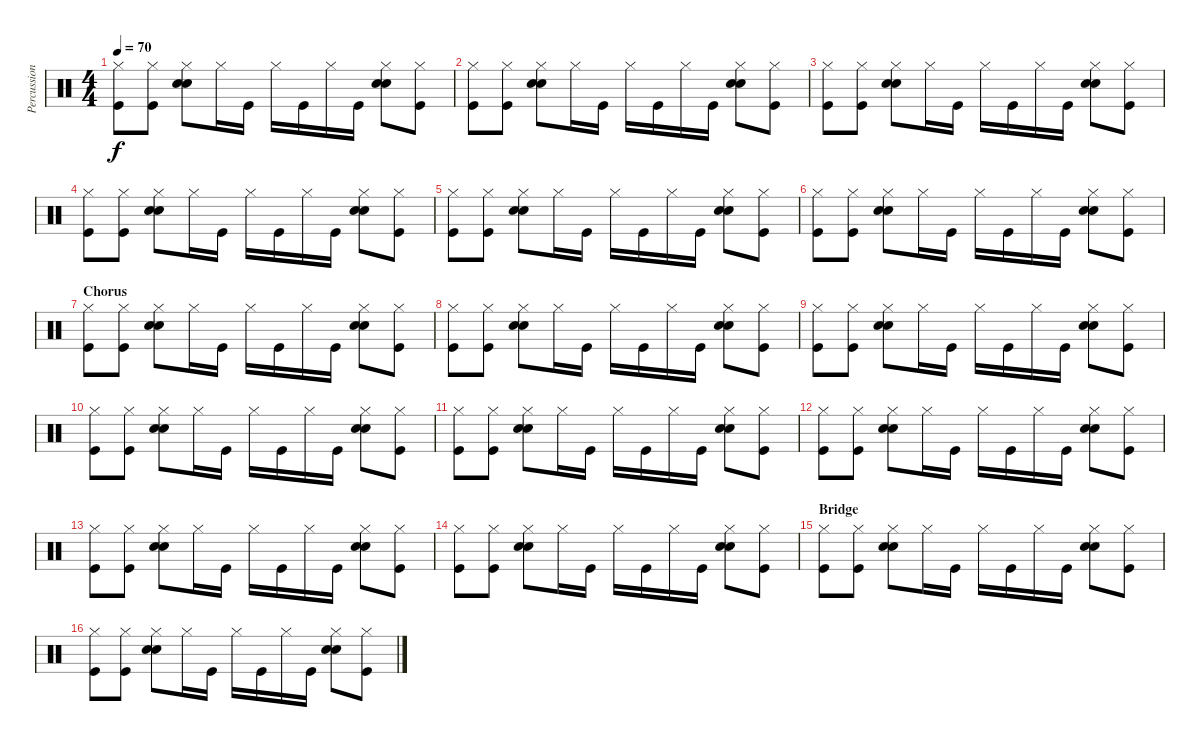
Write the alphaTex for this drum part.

\track ("Percussion" "Percussion") {instrument percussion}
\staff {score}
\articulation defaults
\ts (4 4)
\tempo 70
\clef neutral
\ks c
("Kick (hit)" "Hi-Hat (closed)").8{dy f} ("Kick (hit)" "Hi-Hat (closed)").8 ("Snare (hit) 2" "Electric Snare (hit)" "Hi-Hat (closed)").8 "Hi-Hat (closed)".16 "Kick (hit)".16 "Hi-Hat (closed)".16 "Kick (hit)".16 "Hi-Hat (closed)".16 "Kick (hit)".16 ("Snare (hit) 2" "Electric Snare (hit)" "Hi-Hat (closed)").8 ("Kick (hit)" "Hi-Hat (closed)").8 |
("Kick (hit)" "Hi-Hat (closed)").8 ("Kick (hit)" "Hi-Hat (closed)").8 ("Snare (hit) 2" "Electric Snare (hit)" "Hi-Hat (closed)").8 "Hi-Hat (closed)".16 "Kick (hit)".16 "Hi-Hat (closed)".16 "Kick (hit)".16 "Hi-Hat (closed)".16 "Kick (hit)".16 ("Snare (hit) 2" "Electric Snare (hit)" "Hi-Hat (closed)").8 ("Kick (hit)" "Hi-Hat (closed)").8 |
("Kick (hit)" "Hi-Hat (closed)").8 ("Kick (hit)" "Hi-Hat (closed)").8 ("Snare (hit) 2" "Electric Snare (hit)" "Hi-Hat (closed)").8 "Hi-Hat (closed)".16 "Kick (hit)".16 "Hi-Hat (closed)".16 "Kick (hit)".16 "Hi-Hat (closed)".16 "Kick (hit)".16 ("Snare (hit) 2" "Electric Snare (hit)" "Hi-Hat (closed)").8 ("Kick (hit)" "Hi-Hat (closed)").8 |
("Kick (hit)" "Hi-Hat (closed)").8 ("Kick (hit)" "Hi-Hat (closed)").8 ("Snare (hit) 2" "Electric Snare (hit)" "Hi-Hat (closed)").8 "Hi-Hat (closed)".16 "Kick (hit)".16 "Hi-Hat (closed)".16 "Kick (hit)".16 "Hi-Hat (closed)".16 "Kick (hit)".16 ("Snare (hit) 2" "Electric Snare (hit)" "Hi-Hat (closed)").8 ("Kick (hit)" "Hi-Hat (closed)").8 |
("Kick (hit)" "Hi-Hat (closed)").8 ("Kick (hit)" "Hi-Hat (closed)").8 ("Snare (hit) 2" "Electric Snare (hit)" "Hi-Hat (closed)").8 "Hi-Hat (closed)".16 "Kick (hit)".16 "Hi-Hat (closed)".16 "Kick (hit)".16 "Hi-Hat (closed)".16 "Kick (hit)".16 ("Snare (hit) 2" "Electric Snare (hit)" "Hi-Hat (closed)").8 ("Kick (hit)" "Hi-Hat (closed)").8 |
("Kick (hit)" "Hi-Hat (closed)").8 ("Kick (hit)" "Hi-Hat (closed)").8 ("Snare (hit) 2" "Electric Snare (hit)" "Hi-Hat (closed)").8 "Hi-Hat (closed)".16 "Kick (hit)".16 "Hi-Hat (closed)".16 "Kick (hit)".16 "Hi-Hat (closed)".16 "Kick (hit)".16 ("Snare (hit) 2" "Electric Snare (hit)" "Hi-Hat (closed)").8 ("Kick (hit)" "Hi-Hat (closed)").8 |
\section ("" "Chorus")
("Kick (hit)" "Hi-Hat (closed)").8 ("Kick (hit)" "Hi-Hat (closed)").8 ("Snare (hit) 2" "Electric Snare (hit)" "Hi-Hat (closed)").8 "Hi-Hat (closed)".16 "Kick (hit)".16 "Hi-Hat (closed)".16 "Kick (hit)".16 "Hi-Hat (closed)".16 "Kick (hit)".16 ("Snare (hit) 2" "Electric Snare (hit)" "Hi-Hat (closed)").8 ("Kick (hit)" "Hi-Hat (closed)").8 |
("Kick (hit)" "Hi-Hat (closed)").8 ("Kick (hit)" "Hi-Hat (closed)").8 ("Snare (hit) 2" "Electric Snare (hit)" "Hi-Hat (closed)").8 "Hi-Hat (closed)".16 "Kick (hit)".16 "Hi-Hat (closed)".16 "Kick (hit)".16 "Hi-Hat (closed)".16 "Kick (hit)".16 ("Snare (hit) 2" "Electric Snare (hit)" "Hi-Hat (closed)").8 ("Kick (hit)" "Hi-Hat (closed)").8 |
("Kick (hit)" "Hi-Hat (closed)").8 ("Kick (hit)" "Hi-Hat (closed)").8 ("Snare (hit) 2" "Electric Snare (hit)" "Hi-Hat (closed)").8 "Hi-Hat (closed)".16 "Kick (hit)".16 "Hi-Hat (closed)".16 "Kick (hit)".16 "Hi-Hat (closed)".16 "Kick (hit)".16 ("Snare (hit) 2" "Electric Snare (hit)" "Hi-Hat (closed)").8 ("Kick (hit)" "Hi-Hat (closed)").8 |
("Kick (hit)" "Hi-Hat (closed)").8 ("Kick (hit)" "Hi-Hat (closed)").8 ("Snare (hit) 2" "Electric Snare (hit)" "Hi-Hat (closed)").8 "Hi-Hat (closed)".16 "Kick (hit)".16 "Hi-Hat (closed)".16 "Kick (hit)".16 "Hi-Hat (closed)".16 "Kick (hit)".16 ("Snare (hit) 2" "Electric Snare (hit)" "Hi-Hat (closed)").8 ("Kick (hit)" "Hi-Hat (closed)").8 |
("Kick (hit)" "Hi-Hat (closed)").8 ("Kick (hit)" "Hi-Hat (closed)").8 ("Snare (hit) 2" "Electric Snare (hit)" "Hi-Hat (closed)").8 "Hi-Hat (closed)".16 "Kick (hit)".16 "Hi-Hat (closed)".16 "Kick (hit)".16 "Hi-Hat (closed)".16 "Kick (hit)".16 ("Snare (hit) 2" "Electric Snare (hit)" "Hi-Hat (closed)").8 ("Kick (hit)" "Hi-Hat (closed)").8 |
("Kick (hit)" "Hi-Hat (closed)").8 ("Kick (hit)" "Hi-Hat (closed)").8 ("Snare (hit) 2" "Electric Snare (hit)" "Hi-Hat (closed)").8 "Hi-Hat (closed)".16 "Kick (hit)".16 "Hi-Hat (closed)".16 "Kick (hit)".16 "Hi-Hat (closed)".16 "Kick (hit)".16 ("Snare (hit) 2" "Electric Snare (hit)" "Hi-Hat (closed)").8 ("Kick (hit)" "Hi-Hat (closed)").8 |
("Kick (hit)" "Hi-Hat (closed)").8 ("Kick (hit)" "Hi-Hat (closed)").8 ("Snare (hit) 2" "Electric Snare (hit)" "Hi-Hat (closed)").8 "Hi-Hat (closed)".16 "Kick (hit)".16 "Hi-Hat (closed)".16 "Kick (hit)".16 "Hi-Hat (closed)".16 "Kick (hit)".16 ("Snare (hit) 2" "Electric Snare (hit)" "Hi-Hat (closed)").8 ("Kick (hit)" "Hi-Hat (closed)").8 |
("Kick (hit)" "Hi-Hat (closed)").8 ("Kick (hit)" "Hi-Hat (closed)").8 ("Snare (hit) 2" "Electric Snare (hit)" "Hi-Hat (closed)").8 "Hi-Hat (closed)".16 "Kick (hit)".16 "Hi-Hat (closed)".16 "Kick (hit)".16 "Hi-Hat (closed)".16 "Kick (hit)".16 ("Snare (hit) 2" "Electric Snare (hit)" "Hi-Hat (closed)").8 ("Kick (hit)" "Hi-Hat (closed)").8 |
\section ("" "Bridge")
("Kick (hit)" "Hi-Hat (closed)").8 ("Kick (hit)" "Hi-Hat (closed)").8 ("Snare (hit) 2" "Electric Snare (hit)" "Hi-Hat (closed)").8 "Hi-Hat (closed)".16 "Kick (hit)".16 "Hi-Hat (closed)".16 "Kick (hit)".16 "Hi-Hat (closed)".16 "Kick (hit)".16 ("Snare (hit) 2" "Electric Snare (hit)" "Hi-Hat (closed)").8 ("Kick (hit)" "Hi-Hat (closed)").8 |
("Kick (hit)" "Hi-Hat (closed)").8 ("Kick (hit)" "Hi-Hat (closed)").8 ("Snare (hit) 2" "Electric Snare (hit)" "Hi-Hat (closed)").8 "Hi-Hat (closed)".16 "Kick (hit)".16 "Hi-Hat (closed)".16 "Kick (hit)".16 "Hi-Hat (closed)".16 "Kick (hit)".16 ("Snare (hit) 2" "Electric Snare (hit)" "Hi-Hat (closed)").8 ("Kick (hit)" "Hi-Hat (closed)").8
